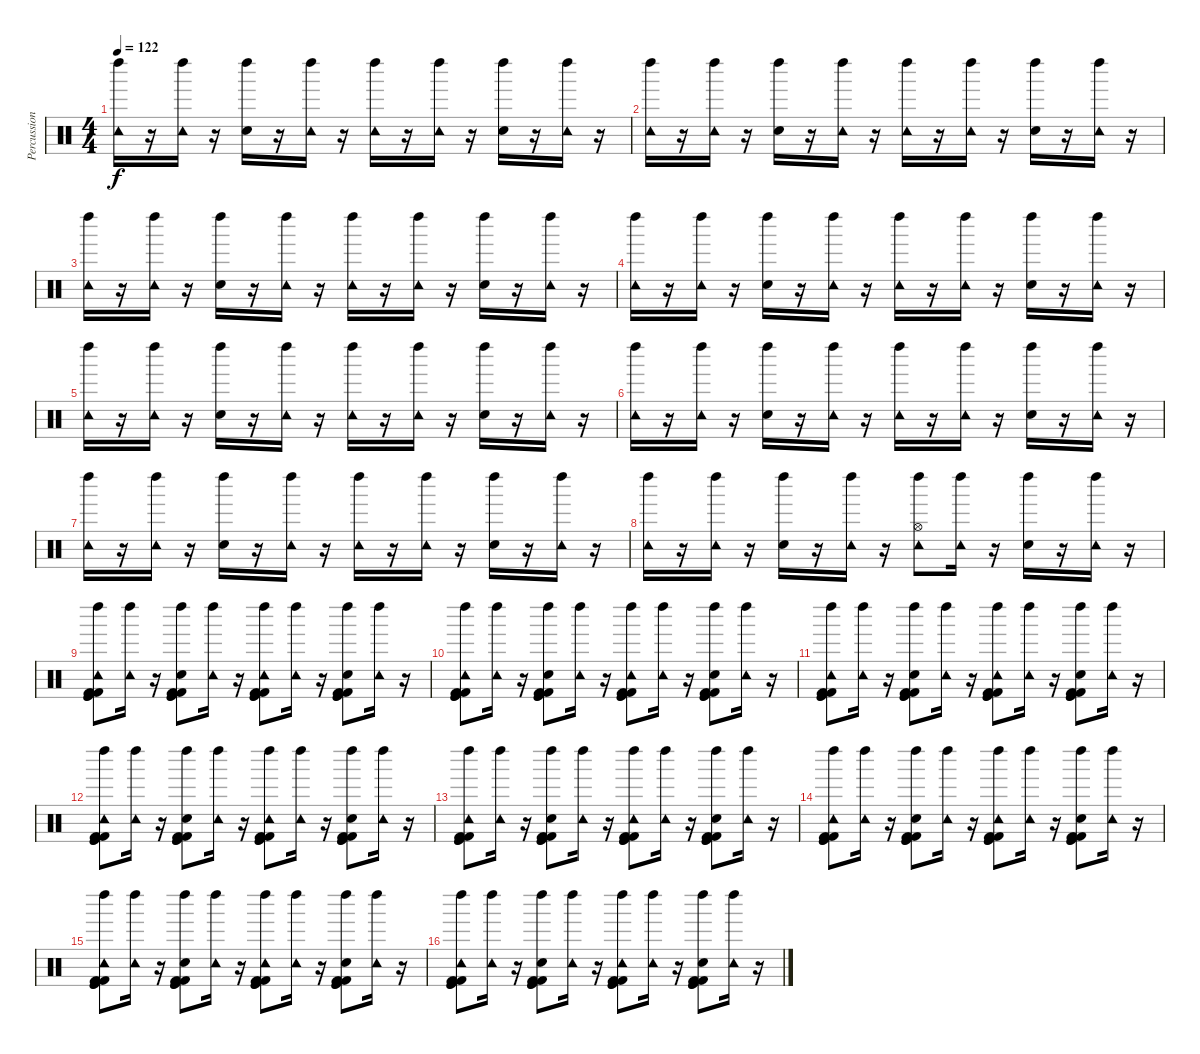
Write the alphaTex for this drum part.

\track ("Percussion" "Percussion") {instrument percussion}
\staff {score}
\articulation defaults
\ts (4 4)
\tempo 122
\clef neutral
\ks c
("Tambourine (hit)" "Left Maraca (hit)").16{dy f} r.16 ("Tambourine (hit)" "Left Maraca (hit)").16 r.16 ("Hand Clap (hit)" "Left Maraca (hit)").16 r.16 ("Tambourine (hit)" "Left Maraca (hit)").16 r.16 ("Tambourine (hit)" "Left Maraca (hit)").16 r.16 ("Tambourine (hit)" "Left Maraca (hit)").16 r.16 ("Hand Clap (hit)" "Left Maraca (hit)").16 r.16 ("Tambourine (hit)" "Left Maraca (hit)").16 r.16 |
("Left Maraca (hit)" "Tambourine (hit)").16 r.16 ("Left Maraca (hit)" "Tambourine (hit)").16 r.16 ("Left Maraca (hit)" "Hand Clap (hit)").16 r.16 ("Left Maraca (hit)" "Tambourine (hit)").16 r.16 ("Left Maraca (hit)" "Tambourine (hit)").16 r.16 ("Left Maraca (hit)" "Tambourine (hit)").16 r.16 ("Left Maraca (hit)" "Hand Clap (hit)").16 r.16 ("Left Maraca (hit)" "Tambourine (hit)").16 r.16 |
("Tambourine (hit)" "Left Maraca (hit)").16 r.16 ("Tambourine (hit)" "Left Maraca (hit)").16 r.16 ("Hand Clap (hit)" "Left Maraca (hit)").16 r.16 ("Tambourine (hit)" "Left Maraca (hit)").16 r.16 ("Tambourine (hit)" "Left Maraca (hit)").16 r.16 ("Tambourine (hit)" "Left Maraca (hit)").16 r.16 ("Hand Clap (hit)" "Left Maraca (hit)").16 r.16 ("Tambourine (hit)" "Left Maraca (hit)").16 r.16 |
("Tambourine (hit)" "Left Maraca (hit)").16 r.16 ("Tambourine (hit)" "Left Maraca (hit)").16 r.16 ("Hand Clap (hit)" "Left Maraca (hit)").16 r.16 ("Tambourine (hit)" "Left Maraca (hit)").16 r.16 ("Tambourine (hit)" "Left Maraca (hit)").16 r.16 ("Tambourine (hit)" "Left Maraca (hit)").16 r.16 ("Hand Clap (hit)" "Left Maraca (hit)").16 r.16 ("Tambourine (hit)" "Left Maraca (hit)").16 r.16 |
("Tambourine (hit)" "Left Maraca (hit)").16 r.16 ("Tambourine (hit)" "Left Maraca (hit)").16 r.16 ("Hand Clap (hit)" "Left Maraca (hit)").16 r.16 ("Tambourine (hit)" "Left Maraca (hit)").16 r.16 ("Tambourine (hit)" "Left Maraca (hit)").16 r.16 ("Tambourine (hit)" "Left Maraca (hit)").16 r.16 ("Hand Clap (hit)" "Left Maraca (hit)").16 r.16 ("Tambourine (hit)" "Left Maraca (hit)").16 r.16 |
("Tambourine (hit)" "Left Maraca (hit)").16 r.16 ("Tambourine (hit)" "Left Maraca (hit)").16 r.16 ("Hand Clap (hit)" "Left Maraca (hit)").16 r.16 ("Tambourine (hit)" "Left Maraca (hit)").16 r.16 ("Tambourine (hit)" "Left Maraca (hit)").16 r.16 ("Tambourine (hit)" "Left Maraca (hit)").16 r.16 ("Hand Clap (hit)" "Left Maraca (hit)").16 r.16 ("Tambourine (hit)" "Left Maraca (hit)").16 r.16 |
("Tambourine (hit)" "Left Maraca (hit)").16 r.16 ("Tambourine (hit)" "Left Maraca (hit)").16 r.16 ("Hand Clap (hit)" "Left Maraca (hit)").16 r.16 ("Tambourine (hit)" "Left Maraca (hit)").16 r.16 ("Tambourine (hit)" "Left Maraca (hit)").16 r.16 ("Tambourine (hit)" "Left Maraca (hit)").16 r.16 ("Hand Clap (hit)" "Left Maraca (hit)").16 r.16 ("Tambourine (hit)" "Left Maraca (hit)").16 r.16 |
("Tambourine (hit)" "Left Maraca (hit)").16 r.16 ("Tambourine (hit)" "Left Maraca (hit)").16 r.16 ("Hand Clap (hit)" "Left Maraca (hit)").16 r.16 ("Tambourine (hit)" "Left Maraca (hit)").16 r.16 ("Hi-Hat (open)" "Tambourine (hit)" "Left Maraca (hit)").8 ("Tambourine (hit)" "Left Maraca (hit)").16 r.16 ("Hand Clap (hit)" "Left Maraca (hit)").16 r.16 ("Tambourine (hit)" "Left Maraca (hit)").16 r.16 |
("Kick (hit)" "Kick (hit)" "Kick (hit) 2" "Kick (hit) 2" "Tambourine (hit)" "Left Maraca (hit)").8 ("Tambourine (hit)" "Left Maraca (hit)").16 r.16 ("Kick (hit) 2" "Kick (hit)" "Kick (hit)" "Kick (hit) 2" "Hand Clap (hit)" "Left Maraca (hit)").8 ("Tambourine (hit)" "Left Maraca (hit)").16 r.16 ("Kick (hit) 2" "Kick (hit) 2" "Kick (hit)" "Kick (hit)" "Tambourine (hit)" "Left Maraca (hit)").8 ("Tambourine (hit)" "Left Maraca (hit)").16 r.16 ("Kick (hit)" "Kick (hit) 2" "Kick (hit)" "Kick (hit) 2" "Hand Clap (hit)" "Left Maraca (hit)").8 ("Tambourine (hit)" "Left Maraca (hit)").16 r.16 |
("Left Maraca (hit)" "Tambourine (hit)" "Kick (hit)" "Kick (hit)" "Kick (hit) 2" "Kick (hit) 2").8 ("Left Maraca (hit)" "Tambourine (hit)").16 r.16 ("Left Maraca (hit)" "Hand Clap (hit)" "Kick (hit) 2" "Kick (hit)" "Kick (hit)" "Kick (hit) 2").8 ("Left Maraca (hit)" "Tambourine (hit)").16 r.16 ("Left Maraca (hit)" "Tambourine (hit)" "Kick (hit) 2" "Kick (hit) 2" "Kick (hit)" "Kick (hit)").8 ("Left Maraca (hit)" "Tambourine (hit)").16 r.16 ("Left Maraca (hit)" "Hand Clap (hit)" "Kick (hit)" "Kick (hit) 2" "Kick (hit)" "Kick (hit) 2").8 ("Left Maraca (hit)" "Tambourine (hit)").16 r.16 |
("Tambourine (hit)" "Left Maraca (hit)" "Kick (hit)" "Kick (hit)" "Kick (hit) 2" "Kick (hit) 2").8 ("Tambourine (hit)" "Left Maraca (hit)").16 r.16 ("Hand Clap (hit)" "Left Maraca (hit)" "Kick (hit) 2" "Kick (hit)" "Kick (hit)" "Kick (hit) 2").8 ("Tambourine (hit)" "Left Maraca (hit)").16 r.16 ("Tambourine (hit)" "Left Maraca (hit)" "Kick (hit) 2" "Kick (hit) 2" "Kick (hit)" "Kick (hit)").8 ("Tambourine (hit)" "Left Maraca (hit)").16 r.16 ("Hand Clap (hit)" "Left Maraca (hit)" "Kick (hit)" "Kick (hit) 2" "Kick (hit)" "Kick (hit) 2").8 ("Tambourine (hit)" "Left Maraca (hit)").16 r.16 |
("Tambourine (hit)" "Left Maraca (hit)" "Kick (hit)" "Kick (hit)" "Kick (hit) 2" "Kick (hit) 2").8 ("Tambourine (hit)" "Left Maraca (hit)").16 r.16 ("Hand Clap (hit)" "Left Maraca (hit)" "Kick (hit) 2" "Kick (hit)" "Kick (hit)" "Kick (hit) 2").8 ("Tambourine (hit)" "Left Maraca (hit)").16 r.16 ("Tambourine (hit)" "Left Maraca (hit)" "Kick (hit) 2" "Kick (hit) 2" "Kick (hit)" "Kick (hit)").8 ("Tambourine (hit)" "Left Maraca (hit)").16 r.16 ("Hand Clap (hit)" "Left Maraca (hit)" "Kick (hit)" "Kick (hit) 2" "Kick (hit)" "Kick (hit) 2").8 ("Tambourine (hit)" "Left Maraca (hit)").16 r.16 |
("Tambourine (hit)" "Left Maraca (hit)" "Kick (hit)" "Kick (hit)" "Kick (hit) 2" "Kick (hit) 2").8 ("Tambourine (hit)" "Left Maraca (hit)").16 r.16 ("Hand Clap (hit)" "Left Maraca (hit)" "Kick (hit) 2" "Kick (hit)" "Kick (hit)" "Kick (hit) 2").8 ("Tambourine (hit)" "Left Maraca (hit)").16 r.16 ("Tambourine (hit)" "Left Maraca (hit)" "Kick (hit) 2" "Kick (hit) 2" "Kick (hit)" "Kick (hit)").8 ("Tambourine (hit)" "Left Maraca (hit)").16 r.16 ("Hand Clap (hit)" "Left Maraca (hit)" "Kick (hit)" "Kick (hit) 2" "Kick (hit)" "Kick (hit) 2").8 ("Tambourine (hit)" "Left Maraca (hit)").16 r.16 |
("Tambourine (hit)" "Left Maraca (hit)" "Kick (hit)" "Kick (hit)" "Kick (hit) 2" "Kick (hit) 2").8 ("Tambourine (hit)" "Left Maraca (hit)").16 r.16 ("Hand Clap (hit)" "Left Maraca (hit)" "Kick (hit) 2" "Kick (hit)" "Kick (hit)" "Kick (hit) 2").8 ("Tambourine (hit)" "Left Maraca (hit)").16 r.16 ("Tambourine (hit)" "Left Maraca (hit)" "Kick (hit) 2" "Kick (hit) 2" "Kick (hit)" "Kick (hit)").8 ("Tambourine (hit)" "Left Maraca (hit)").16 r.16 ("Hand Clap (hit)" "Left Maraca (hit)" "Kick (hit)" "Kick (hit) 2" "Kick (hit)" "Kick (hit) 2").8 ("Tambourine (hit)" "Left Maraca (hit)").16 r.16 |
("Tambourine (hit)" "Left Maraca (hit)" "Kick (hit)" "Kick (hit)" "Kick (hit) 2" "Kick (hit) 2").8 ("Tambourine (hit)" "Left Maraca (hit)").16 r.16 ("Hand Clap (hit)" "Left Maraca (hit)" "Kick (hit) 2" "Kick (hit)" "Kick (hit)" "Kick (hit) 2").8 ("Tambourine (hit)" "Left Maraca (hit)").16 r.16 ("Tambourine (hit)" "Left Maraca (hit)" "Kick (hit) 2" "Kick (hit) 2" "Kick (hit)" "Kick (hit)").8 ("Tambourine (hit)" "Left Maraca (hit)").16 r.16 ("Hand Clap (hit)" "Left Maraca (hit)" "Kick (hit)" "Kick (hit) 2" "Kick (hit)" "Kick (hit) 2").8 ("Tambourine (hit)" "Left Maraca (hit)").16 r.16 |
("Tambourine (hit)" "Left Maraca (hit)" "Kick (hit)" "Kick (hit)" "Kick (hit) 2" "Kick (hit) 2").8 ("Tambourine (hit)" "Left Maraca (hit)").16 r.16 ("Hand Clap (hit)" "Left Maraca (hit)" "Kick (hit) 2" "Kick (hit)" "Kick (hit)" "Kick (hit) 2").8 ("Tambourine (hit)" "Left Maraca (hit)").16 r.16 ("Tambourine (hit)" "Left Maraca (hit)" "Kick (hit) 2" "Kick (hit) 2" "Kick (hit)" "Kick (hit)").8 ("Tambourine (hit)" "Left Maraca (hit)").16 r.16 ("Hand Clap (hit)" "Left Maraca (hit)" "Kick (hit)" "Kick (hit) 2" "Kick (hit)" "Kick (hit) 2").8 ("Tambourine (hit)" "Left Maraca (hit)").16 r.16
